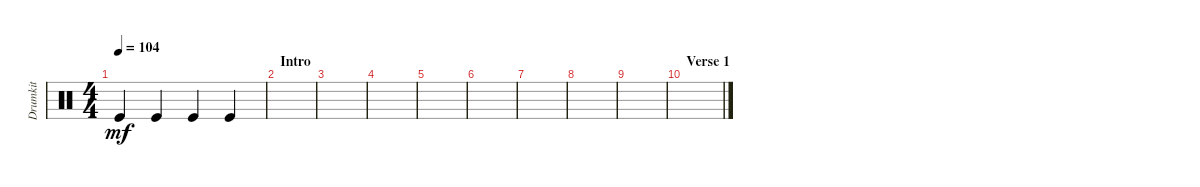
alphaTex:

\track ("Drumkit" "Drumkit") {instrument percussion}
\staff {score}
\articulation defaults
\ts (4 4)
\tempo 104
\clef neutral
\ks c "Kick (hit)".4{dy mf} "Kick (hit)".4 "Kick (hit)".4 "Kick (hit)".4
|
\section ("" "Intro")
|
|
|
|
|
|
|
|
\section ("" "Verse 1")
